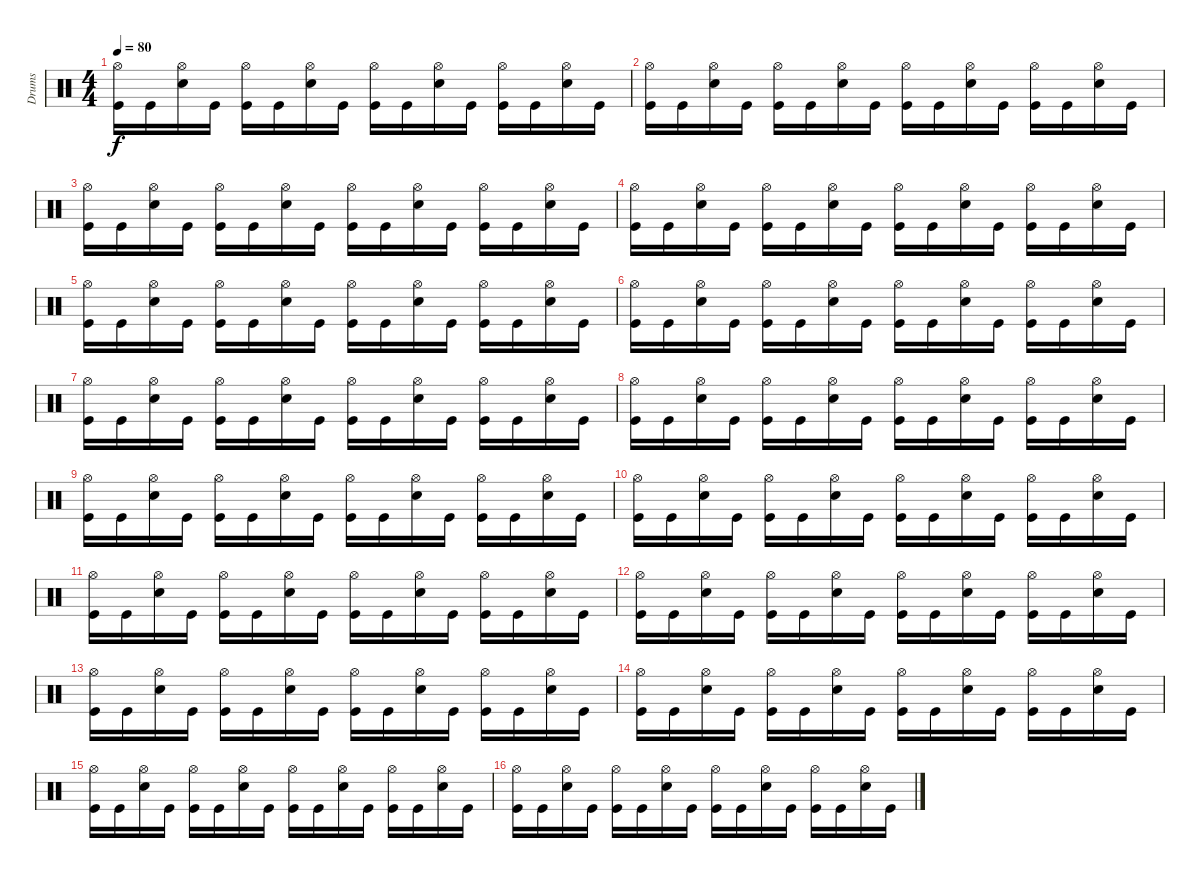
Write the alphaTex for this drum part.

\track ("Drums" "Drums") {instrument percussion}
\staff {score}
\articulation defaults
\ts (4 4)
\tempo 80
\clef neutral
\ks c
("Hi-Hat (open)" "Kick (hit)").16{dy f} "Kick (hit)".16 ("Hi-Hat (open)" "Snare (hit) 2").16 "Kick (hit)".16 ("Hi-Hat (open)" "Kick (hit)").16 "Kick (hit)".16 ("Hi-Hat (open)" "Snare (hit) 2").16 "Kick (hit)".16 ("Hi-Hat (open)" "Kick (hit)").16 "Kick (hit)".16 ("Hi-Hat (open)" "Snare (hit) 2").16 "Kick (hit)".16 ("Hi-Hat (open)" "Kick (hit)").16 "Kick (hit)".16 ("Hi-Hat (open)" "Snare (hit) 2").16 "Kick (hit)".16 |
("Hi-Hat (open)" "Kick (hit)").16 "Kick (hit)".16 ("Hi-Hat (open)" "Snare (hit) 2").16 "Kick (hit)".16 ("Hi-Hat (open)" "Kick (hit)").16 "Kick (hit)".16 ("Hi-Hat (open)" "Snare (hit) 2").16 "Kick (hit)".16 ("Hi-Hat (open)" "Kick (hit)").16 "Kick (hit)".16 ("Hi-Hat (open)" "Snare (hit) 2").16 "Kick (hit)".16 ("Hi-Hat (open)" "Kick (hit)").16 "Kick (hit)".16 ("Hi-Hat (open)" "Snare (hit) 2").16 "Kick (hit)".16 |
("Hi-Hat (open)" "Kick (hit)").16 "Kick (hit)".16 ("Hi-Hat (open)" "Snare (hit) 2").16 "Kick (hit)".16 ("Hi-Hat (open)" "Kick (hit)").16 "Kick (hit)".16 ("Hi-Hat (open)" "Snare (hit) 2").16 "Kick (hit)".16 ("Hi-Hat (open)" "Kick (hit)").16 "Kick (hit)".16 ("Hi-Hat (open)" "Snare (hit) 2").16 "Kick (hit)".16 ("Hi-Hat (open)" "Kick (hit)").16 "Kick (hit)".16 ("Hi-Hat (open)" "Snare (hit) 2").16 "Kick (hit)".16 |
("Hi-Hat (open)" "Kick (hit)").16 "Kick (hit)".16 ("Hi-Hat (open)" "Snare (hit) 2").16 "Kick (hit)".16 ("Hi-Hat (open)" "Kick (hit)").16 "Kick (hit)".16 ("Hi-Hat (open)" "Snare (hit) 2").16 "Kick (hit)".16 ("Hi-Hat (open)" "Kick (hit)").16 "Kick (hit)".16 ("Hi-Hat (open)" "Snare (hit) 2").16 "Kick (hit)".16 ("Hi-Hat (open)" "Kick (hit)").16 "Kick (hit)".16 ("Hi-Hat (open)" "Snare (hit) 2").16 "Kick (hit)".16 |
("Hi-Hat (open)" "Kick (hit)").16 "Kick (hit)".16 ("Hi-Hat (open)" "Snare (hit) 2").16 "Kick (hit)".16 ("Hi-Hat (open)" "Kick (hit)").16 "Kick (hit)".16 ("Hi-Hat (open)" "Snare (hit) 2").16 "Kick (hit)".16 ("Hi-Hat (open)" "Kick (hit)").16 "Kick (hit)".16 ("Hi-Hat (open)" "Snare (hit) 2").16 "Kick (hit)".16 ("Hi-Hat (open)" "Kick (hit)").16 "Kick (hit)".16 ("Hi-Hat (open)" "Snare (hit) 2").16 "Kick (hit)".16 |
("Hi-Hat (open)" "Kick (hit)").16 "Kick (hit)".16 ("Hi-Hat (open)" "Snare (hit) 2").16 "Kick (hit)".16 ("Hi-Hat (open)" "Kick (hit)").16 "Kick (hit)".16 ("Hi-Hat (open)" "Snare (hit) 2").16 "Kick (hit)".16 ("Hi-Hat (open)" "Kick (hit)").16 "Kick (hit)".16 ("Hi-Hat (open)" "Snare (hit) 2").16 "Kick (hit)".16 ("Hi-Hat (open)" "Kick (hit)").16 "Kick (hit)".16 ("Hi-Hat (open)" "Snare (hit) 2").16 "Kick (hit)".16 |
("Hi-Hat (open)" "Kick (hit)").16 "Kick (hit)".16 ("Hi-Hat (open)" "Snare (hit) 2").16 "Kick (hit)".16 ("Hi-Hat (open)" "Kick (hit)").16 "Kick (hit)".16 ("Hi-Hat (open)" "Snare (hit) 2").16 "Kick (hit)".16 ("Hi-Hat (open)" "Kick (hit)").16 "Kick (hit)".16 ("Hi-Hat (open)" "Snare (hit) 2").16 "Kick (hit)".16 ("Hi-Hat (open)" "Kick (hit)").16 "Kick (hit)".16 ("Hi-Hat (open)" "Snare (hit) 2").16 "Kick (hit)".16 |
("Hi-Hat (open)" "Kick (hit)").16 "Kick (hit)".16 ("Hi-Hat (open)" "Snare (hit) 2").16 "Kick (hit)".16 ("Hi-Hat (open)" "Kick (hit)").16 "Kick (hit)".16 ("Hi-Hat (open)" "Snare (hit) 2").16 "Kick (hit)".16 ("Hi-Hat (open)" "Kick (hit)").16 "Kick (hit)".16 ("Hi-Hat (open)" "Snare (hit) 2").16 "Kick (hit)".16 ("Hi-Hat (open)" "Kick (hit)").16 "Kick (hit)".16 ("Hi-Hat (open)" "Snare (hit) 2").16 "Kick (hit)".16 |
("Hi-Hat (open)" "Kick (hit)").16 "Kick (hit)".16 ("Hi-Hat (open)" "Snare (hit) 2").16 "Kick (hit)".16 ("Hi-Hat (open)" "Kick (hit)").16 "Kick (hit)".16 ("Hi-Hat (open)" "Snare (hit) 2").16 "Kick (hit)".16 ("Hi-Hat (open)" "Kick (hit)").16 "Kick (hit)".16 ("Hi-Hat (open)" "Snare (hit) 2").16 "Kick (hit)".16 ("Hi-Hat (open)" "Kick (hit)").16 "Kick (hit)".16 ("Hi-Hat (open)" "Snare (hit) 2").16 "Kick (hit)".16 |
("Hi-Hat (open)" "Kick (hit)").16 "Kick (hit)".16 ("Hi-Hat (open)" "Snare (hit) 2").16 "Kick (hit)".16 ("Hi-Hat (open)" "Kick (hit)").16 "Kick (hit)".16 ("Hi-Hat (open)" "Snare (hit) 2").16 "Kick (hit)".16 ("Hi-Hat (open)" "Kick (hit)").16 "Kick (hit)".16 ("Hi-Hat (open)" "Snare (hit) 2").16 "Kick (hit)".16 ("Hi-Hat (open)" "Kick (hit)").16 "Kick (hit)".16 ("Hi-Hat (open)" "Snare (hit) 2").16 "Kick (hit)".16 |
("Hi-Hat (open)" "Kick (hit)").16 "Kick (hit)".16 ("Hi-Hat (open)" "Snare (hit) 2").16 "Kick (hit)".16 ("Hi-Hat (open)" "Kick (hit)").16 "Kick (hit)".16 ("Hi-Hat (open)" "Snare (hit) 2").16 "Kick (hit)".16 ("Hi-Hat (open)" "Kick (hit)").16 "Kick (hit)".16 ("Hi-Hat (open)" "Snare (hit) 2").16 "Kick (hit)".16 ("Hi-Hat (open)" "Kick (hit)").16 "Kick (hit)".16 ("Hi-Hat (open)" "Snare (hit) 2").16 "Kick (hit)".16 |
("Hi-Hat (open)" "Kick (hit)").16 "Kick (hit)".16 ("Hi-Hat (open)" "Snare (hit) 2").16 "Kick (hit)".16 ("Hi-Hat (open)" "Kick (hit)").16 "Kick (hit)".16 ("Hi-Hat (open)" "Snare (hit) 2").16 "Kick (hit)".16 ("Hi-Hat (open)" "Kick (hit)").16 "Kick (hit)".16 ("Hi-Hat (open)" "Snare (hit) 2").16 "Kick (hit)".16 ("Hi-Hat (open)" "Kick (hit)").16 "Kick (hit)".16 ("Hi-Hat (open)" "Snare (hit) 2").16 "Kick (hit)".16 |
("Hi-Hat (open)" "Kick (hit)").16 "Kick (hit)".16 ("Hi-Hat (open)" "Snare (hit) 2").16 "Kick (hit)".16 ("Hi-Hat (open)" "Kick (hit)").16 "Kick (hit)".16 ("Hi-Hat (open)" "Snare (hit) 2").16 "Kick (hit)".16 ("Hi-Hat (open)" "Kick (hit)").16 "Kick (hit)".16 ("Hi-Hat (open)" "Snare (hit) 2").16 "Kick (hit)".16 ("Hi-Hat (open)" "Kick (hit)").16 "Kick (hit)".16 ("Hi-Hat (open)" "Snare (hit) 2").16 "Kick (hit)".16 |
("Hi-Hat (open)" "Kick (hit)").16 "Kick (hit)".16 ("Hi-Hat (open)" "Snare (hit) 2").16 "Kick (hit)".16 ("Hi-Hat (open)" "Kick (hit)").16 "Kick (hit)".16 ("Hi-Hat (open)" "Snare (hit) 2").16 "Kick (hit)".16 ("Hi-Hat (open)" "Kick (hit)").16 "Kick (hit)".16 ("Hi-Hat (open)" "Snare (hit) 2").16 "Kick (hit)".16 ("Hi-Hat (open)" "Kick (hit)").16 "Kick (hit)".16 ("Hi-Hat (open)" "Snare (hit) 2").16 "Kick (hit)".16 |
("Hi-Hat (open)" "Kick (hit)").16 "Kick (hit)".16 ("Hi-Hat (open)" "Snare (hit) 2").16 "Kick (hit)".16 ("Hi-Hat (open)" "Kick (hit)").16 "Kick (hit)".16 ("Hi-Hat (open)" "Snare (hit) 2").16 "Kick (hit)".16 ("Hi-Hat (open)" "Kick (hit)").16 "Kick (hit)".16 ("Hi-Hat (open)" "Snare (hit) 2").16 "Kick (hit)".16 ("Hi-Hat (open)" "Kick (hit)").16 "Kick (hit)".16 ("Hi-Hat (open)" "Snare (hit) 2").16 "Kick (hit)".16 |
("Hi-Hat (open)" "Kick (hit)").16 "Kick (hit)".16 ("Hi-Hat (open)" "Snare (hit) 2").16 "Kick (hit)".16 ("Hi-Hat (open)" "Kick (hit)").16 "Kick (hit)".16 ("Hi-Hat (open)" "Snare (hit) 2").16 "Kick (hit)".16 ("Hi-Hat (open)" "Kick (hit)").16 "Kick (hit)".16 ("Hi-Hat (open)" "Snare (hit) 2").16 "Kick (hit)".16 ("Hi-Hat (open)" "Kick (hit)").16 "Kick (hit)".16 ("Hi-Hat (open)" "Snare (hit) 2").16 "Kick (hit)".16
